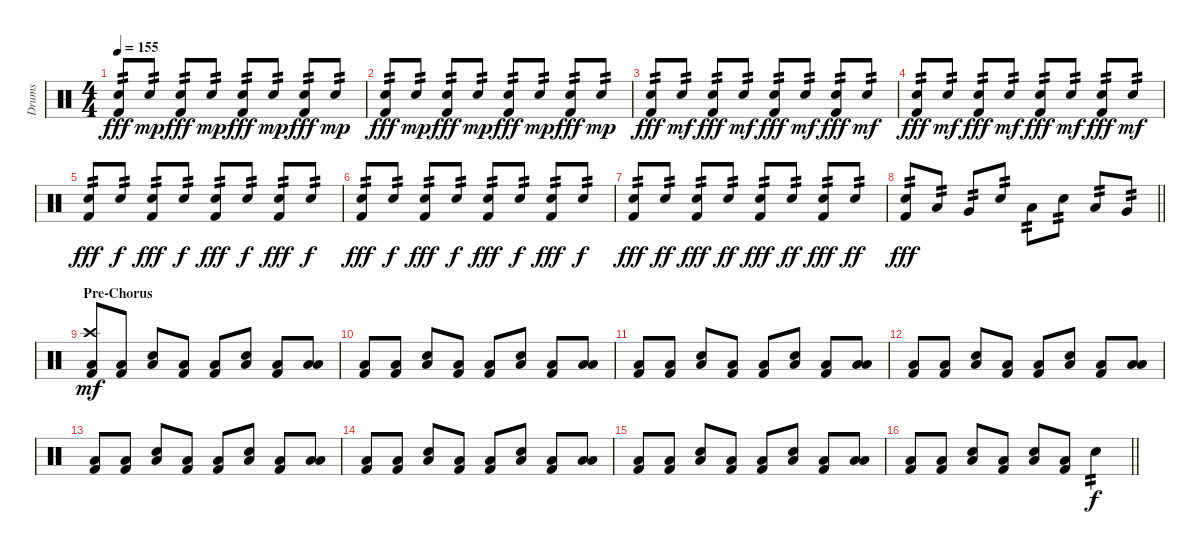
\track ("Drums" "Drums") {instrument percussion}
\staff {score}
\articulation defaults
\ts (4 4)
\tempo 155
\clef neutral
\ks c
("Snare (hit) 2" "Kick (hit) 2").8{tp 2 dy fff} "Snare (hit) 2".8{tp 2 dy mp} ("Snare (hit) 2" "Kick (hit) 2").8{tp 2 dy fff} "Snare (hit) 2".8{tp 2 dy mp} ("Snare (hit) 2" "Kick (hit) 2").8{tp 2 dy fff} "Snare (hit) 2".8{tp 2 dy mp} ("Snare (hit) 2" "Kick (hit) 2").8{tp 2 dy fff} "Snare (hit) 2".8{tp 2 dy mp} |
("Snare (hit) 2" "Kick (hit) 2").8{tp 2 dy fff} "Snare (hit) 2".8{tp 2 dy mp} ("Snare (hit) 2" "Kick (hit) 2").8{tp 2 dy fff} "Snare (hit) 2".8{tp 2 dy mp} ("Snare (hit) 2" "Kick (hit) 2").8{tp 2 dy fff} "Snare (hit) 2".8{tp 2 dy mp} ("Snare (hit) 2" "Kick (hit) 2").8{tp 2 dy fff} "Snare (hit) 2".8{tp 2 dy mp} |
("Snare (hit) 2" "Kick (hit) 2").8{tp 2 dy fff} "Snare (hit) 2".8{tp 2 dy mf} ("Snare (hit) 2" "Kick (hit) 2").8{tp 2 dy fff} "Snare (hit) 2".8{tp 2 dy mf} ("Snare (hit) 2" "Kick (hit) 2").8{tp 2 dy fff} "Snare (hit) 2".8{tp 2 dy mf} ("Snare (hit) 2" "Kick (hit) 2").8{tp 2 dy fff} "Snare (hit) 2".8{tp 2 dy mf} |
("Snare (hit) 2" "Kick (hit) 2").8{tp 2 dy fff} "Snare (hit) 2".8{tp 2 dy mf} ("Snare (hit) 2" "Kick (hit) 2").8{tp 2 dy fff} "Snare (hit) 2".8{tp 2 dy mf} ("Snare (hit) 2" "Kick (hit) 2").8{tp 2 dy fff} "Snare (hit) 2".8{tp 2 dy mf} ("Snare (hit) 2" "Kick (hit) 2").8{tp 2 dy fff} "Snare (hit) 2".8{tp 2 dy mf} |
("Snare (hit) 2" "Kick (hit) 2").8{tp 2 dy fff} "Snare (hit) 2".8{tp 2 dy f} ("Snare (hit) 2" "Kick (hit) 2").8{tp 2 dy fff} "Snare (hit) 2".8{tp 2 dy f} ("Snare (hit) 2" "Kick (hit) 2").8{tp 2 dy fff} "Snare (hit) 2".8{tp 2 dy f} ("Snare (hit) 2" "Kick (hit) 2").8{tp 2 dy fff} "Snare (hit) 2".8{tp 2 dy f} |
("Snare (hit) 2" "Kick (hit) 2").8{tp 2 dy fff} "Snare (hit) 2".8{tp 2 dy f} ("Snare (hit) 2" "Kick (hit) 2").8{tp 2 dy fff} "Snare (hit) 2".8{tp 2 dy f} ("Snare (hit) 2" "Kick (hit) 2").8{tp 2 dy fff} "Snare (hit) 2".8{tp 2 dy f} ("Snare (hit) 2" "Kick (hit) 2").8{tp 2 dy fff} "Snare (hit) 2".8{tp 2 dy f} |
("Snare (hit) 2" "Kick (hit) 2").8{tp 2 dy fff} "Snare (hit) 2".8{tp 2 dy ff} ("Snare (hit) 2" "Kick (hit) 2").8{tp 2 dy fff} "Snare (hit) 2".8{tp 2 dy ff} ("Snare (hit) 2" "Kick (hit) 2").8{tp 2 dy fff} "Snare (hit) 2".8{tp 2 dy ff} ("Snare (hit) 2" "Kick (hit) 2").8{tp 2 dy fff} "Snare (hit) 2".8{tp 2 dy ff} |
\barLineRight lightlight
("Snare (hit) 2" "Kick (hit) 2").8{tp 2 dy fff} "Low Tom (hit)".8{tp 2} "Very Low Tom (hit)".8{tp 2} "Snare (hit) 2".8{tp 2} "Low Tom (hit)".8{tp 2} "Snare (hit) 2".8{tp 2} "Low Tom (hit)".8{tp 2} "Very Low Tom (hit)".8{tp 2} |
\section ("" "Pre-Chorus")
("Crash high (hit)" "Low Floor Tom (hit)" "Kick (hit) 2").8{dy mf} ("Low Floor Tom (hit)" "Kick (hit) 2").8 ("Snare (hit) 2" "Low Floor Tom (hit)").8 ("Low Floor Tom (hit)" "Kick (hit) 2").8 ("Low Floor Tom (hit)" "Kick (hit) 2").8 ("Snare (hit) 2" "Low Floor Tom (hit)").8 ("Low Floor Tom (hit)" "Kick (hit) 2").8 ("Low Tom (hit)" "Low Floor Tom (hit)").8 |
("Low Floor Tom (hit)" "Kick (hit) 2").8 ("Low Floor Tom (hit)" "Kick (hit) 2").8 ("Snare (hit) 2" "Low Floor Tom (hit)").8 ("Low Floor Tom (hit)" "Kick (hit) 2").8 ("Low Floor Tom (hit)" "Kick (hit) 2").8 ("Snare (hit) 2" "Low Floor Tom (hit)").8 ("Low Floor Tom (hit)" "Kick (hit) 2").8 ("Low Tom (hit)" "Low Floor Tom (hit)").8 |
("Low Floor Tom (hit)" "Kick (hit) 2").8 ("Low Floor Tom (hit)" "Kick (hit) 2").8 ("Snare (hit) 2" "Low Floor Tom (hit)").8 ("Low Floor Tom (hit)" "Kick (hit) 2").8 ("Low Floor Tom (hit)" "Kick (hit) 2").8 ("Snare (hit) 2" "Low Floor Tom (hit)").8 ("Low Floor Tom (hit)" "Kick (hit) 2").8 ("Low Tom (hit)" "Low Floor Tom (hit)").8 |
("Low Floor Tom (hit)" "Kick (hit) 2").8 ("Low Floor Tom (hit)" "Kick (hit) 2").8 ("Snare (hit) 2" "Low Floor Tom (hit)").8 ("Low Floor Tom (hit)" "Kick (hit) 2").8 ("Low Floor Tom (hit)" "Kick (hit) 2").8 ("Snare (hit) 2" "Low Floor Tom (hit)").8 ("Low Floor Tom (hit)" "Kick (hit) 2").8 ("Low Tom (hit)" "Low Floor Tom (hit)").8 |
("Low Floor Tom (hit)" "Kick (hit) 2").8 ("Low Floor Tom (hit)" "Kick (hit) 2").8 ("Snare (hit) 2" "Low Floor Tom (hit)").8 ("Low Floor Tom (hit)" "Kick (hit) 2").8 ("Low Floor Tom (hit)" "Kick (hit) 2").8 ("Snare (hit) 2" "Low Floor Tom (hit)").8 ("Low Floor Tom (hit)" "Kick (hit) 2").8 ("Low Tom (hit)" "Low Floor Tom (hit)").8 |
("Low Floor Tom (hit)" "Kick (hit) 2").8 ("Low Floor Tom (hit)" "Kick (hit) 2").8 ("Snare (hit) 2" "Low Floor Tom (hit)").8 ("Low Floor Tom (hit)" "Kick (hit) 2").8 ("Low Floor Tom (hit)" "Kick (hit) 2").8 ("Snare (hit) 2" "Low Floor Tom (hit)").8 ("Low Floor Tom (hit)" "Kick (hit) 2").8 ("Low Tom (hit)" "Low Floor Tom (hit)").8 |
("Low Floor Tom (hit)" "Kick (hit) 2").8 ("Low Floor Tom (hit)" "Kick (hit) 2").8 ("Snare (hit) 2" "Low Floor Tom (hit)").8 ("Low Floor Tom (hit)" "Kick (hit) 2").8 ("Low Floor Tom (hit)" "Kick (hit) 2").8 ("Snare (hit) 2" "Low Floor Tom (hit)").8 ("Low Floor Tom (hit)" "Kick (hit) 2").8 ("Low Tom (hit)" "Low Floor Tom (hit)").8 |
\barLineRight lightlight
("Low Floor Tom (hit)" "Kick (hit) 2").8 ("Low Floor Tom (hit)" "Kick (hit) 2").8 ("Snare (hit) 2" "Low Floor Tom (hit)").8 ("Low Floor Tom (hit)" "Kick (hit) 2").8 ("Snare (hit) 2" "Low Floor Tom (hit)").8 ("Low Floor Tom (hit)" "Kick (hit) 2").8 "Snare (hit) 2".4{tp 2 dy f}
